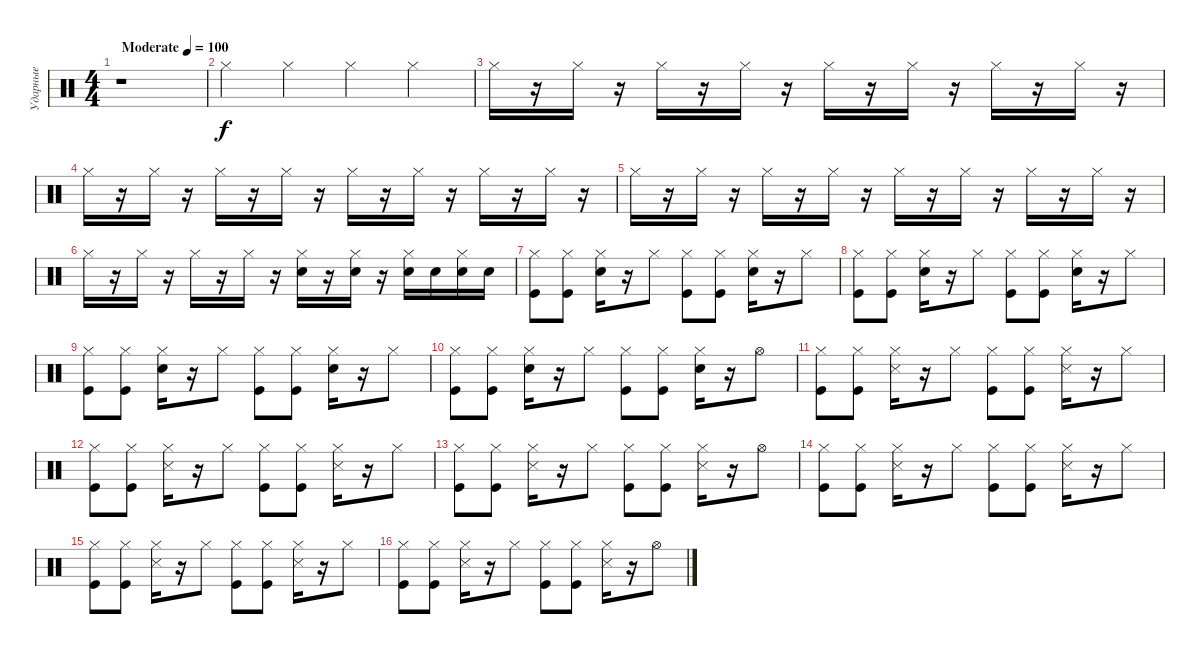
\track ("Ударные" "Ударные") {instrument percussion}
\staff {score}
\articulation defaults
\ts (4 4)
\tempo (100 "Moderate")
\clef neutral
\ks c
r.1{dy f} |
"Hi-Hat (closed)".4 "Hi-Hat (closed)".4 "Hi-Hat (closed)".4 "Hi-Hat (closed)".4 |
"Hi-Hat (closed)".16 r.16 "Hi-Hat (closed)".16 r.16 "Hi-Hat (closed)".16 r.16 "Hi-Hat (closed)".16 r.16 "Hi-Hat (closed)".16 r.16 "Hi-Hat (closed)".16 r.16 "Hi-Hat (closed)".16 r.16 "Hi-Hat (closed)".16 r.16 |
"Hi-Hat (closed)".16 r.16 "Hi-Hat (closed)".16 r.16 "Hi-Hat (closed)".16 r.16 "Hi-Hat (closed)".16 r.16 "Hi-Hat (closed)".16 r.16 "Hi-Hat (closed)".16 r.16 "Hi-Hat (closed)".16 r.16 "Hi-Hat (closed)".16 r.16 |
"Hi-Hat (closed)".16 r.16 "Hi-Hat (closed)".16 r.16 "Hi-Hat (closed)".16 r.16 "Hi-Hat (closed)".16 r.16 "Hi-Hat (closed)".16 r.16 "Hi-Hat (closed)".16 r.16 "Hi-Hat (closed)".16 r.16 "Hi-Hat (closed)".16 r.16 |
"Hi-Hat (closed)".16 r.16 "Hi-Hat (closed)".16 r.16 "Hi-Hat (closed)".16 r.16 "Hi-Hat (closed)".16 r.16 ("Hi-Hat (closed)" "Snare (hit) 2").16 r.16 ("Hi-Hat (closed)" "Snare (hit) 2").16 r.16 ("Hi-Hat (closed)" "Snare (hit) 2").16 "Snare (hit) 2".16 ("Snare (hit) 2" "Hi-Hat (closed)").16 "Snare (hit) 2".16 |
("Hi-Hat (closed)" "Kick (hit)").8 ("Kick (hit)" "Hi-Hat (closed)").8 ("Hi-Hat (closed)" "Snare (hit) 2").16 r.16 "Hi-Hat (closed)".8 ("Hi-Hat (closed)" "Kick (hit)").8 ("Kick (hit)" "Hi-Hat (closed)").8 ("Hi-Hat (closed)" "Snare (hit) 2").16 r.16 "Hi-Hat (closed)".8 |
("Hi-Hat (closed)" "Kick (hit)").8 ("Kick (hit)" "Hi-Hat (closed)").8 ("Hi-Hat (closed)" "Snare (hit) 2").16 r.16 "Hi-Hat (closed)".8 ("Hi-Hat (closed)" "Kick (hit)").8 ("Kick (hit)" "Hi-Hat (closed)").8 ("Hi-Hat (closed)" "Snare (hit) 2").16 r.16 "Hi-Hat (closed)".8 |
("Hi-Hat (closed)" "Kick (hit)").8 ("Kick (hit)" "Hi-Hat (closed)").8 ("Hi-Hat (closed)" "Snare (hit) 2").16 r.16 "Hi-Hat (closed)".8 ("Hi-Hat (closed)" "Kick (hit)").8 ("Kick (hit)" "Hi-Hat (closed)").8 ("Hi-Hat (closed)" "Snare (hit) 2").16 r.16 "Hi-Hat (closed)".8 |
("Hi-Hat (closed)" "Kick (hit)").8 ("Kick (hit)" "Hi-Hat (closed)").8 ("Hi-Hat (closed)" "Snare (hit) 2").16 r.16 "Hi-Hat (closed)".8 ("Hi-Hat (closed)" "Kick (hit)").8 ("Kick (hit)" "Hi-Hat (closed)").8 ("Hi-Hat (closed)" "Snare (hit) 2").16 r.16 "Hi-Hat (open)".8 |
("Hi-Hat (closed)" "Kick (hit)").8 ("Kick (hit)" "Hi-Hat (closed)").8 ("Hi-Hat (closed)" "Snare (side stick) 3").16 r.16 "Hi-Hat (closed)".8 ("Hi-Hat (closed)" "Kick (hit)").8 ("Kick (hit)" "Hi-Hat (closed)").8 ("Hi-Hat (closed)" "Snare (side stick) 3").16 r.16 "Hi-Hat (closed)".8 |
("Hi-Hat (closed)" "Kick (hit)").8 ("Kick (hit)" "Hi-Hat (closed)").8 ("Hi-Hat (closed)" "Snare (side stick) 3").16 r.16 "Hi-Hat (closed)".8 ("Hi-Hat (closed)" "Kick (hit)").8 ("Kick (hit)" "Hi-Hat (closed)").8 ("Hi-Hat (closed)" "Snare (side stick) 3").16 r.16 "Hi-Hat (closed)".8 |
("Hi-Hat (closed)" "Kick (hit)").8 ("Kick (hit)" "Hi-Hat (closed)").8 ("Hi-Hat (closed)" "Snare (side stick) 3").16 r.16 "Hi-Hat (closed)".8 ("Hi-Hat (closed)" "Kick (hit)").8 ("Kick (hit)" "Hi-Hat (closed)").8 ("Hi-Hat (closed)" "Snare (side stick) 3").16 r.16 "Hi-Hat (open)".8 |
("Hi-Hat (closed)" "Kick (hit)").8 ("Kick (hit)" "Hi-Hat (closed)").8 ("Hi-Hat (closed)" "Snare (side stick) 3").16 r.16 "Hi-Hat (closed)".8 ("Hi-Hat (closed)" "Kick (hit)").8 ("Kick (hit)" "Hi-Hat (closed)").8 ("Hi-Hat (closed)" "Snare (side stick) 3").16 r.16 "Hi-Hat (closed)".8 |
("Hi-Hat (closed)" "Kick (hit)").8 ("Kick (hit)" "Hi-Hat (closed)").8 ("Hi-Hat (closed)" "Snare (side stick) 3").16 r.16 "Hi-Hat (closed)".8 ("Hi-Hat (closed)" "Kick (hit)").8 ("Kick (hit)" "Hi-Hat (closed)").8 ("Hi-Hat (closed)" "Snare (side stick) 3").16 r.16 "Hi-Hat (closed)".8 |
("Hi-Hat (closed)" "Kick (hit)").8 ("Kick (hit)" "Hi-Hat (closed)").8 ("Hi-Hat (closed)" "Snare (side stick) 3").16 r.16 "Hi-Hat (closed)".8 ("Hi-Hat (closed)" "Kick (hit)").8 ("Kick (hit)" "Hi-Hat (closed)").8 ("Hi-Hat (closed)" "Snare (side stick) 3").16 r.16 "Hi-Hat (open)".8
